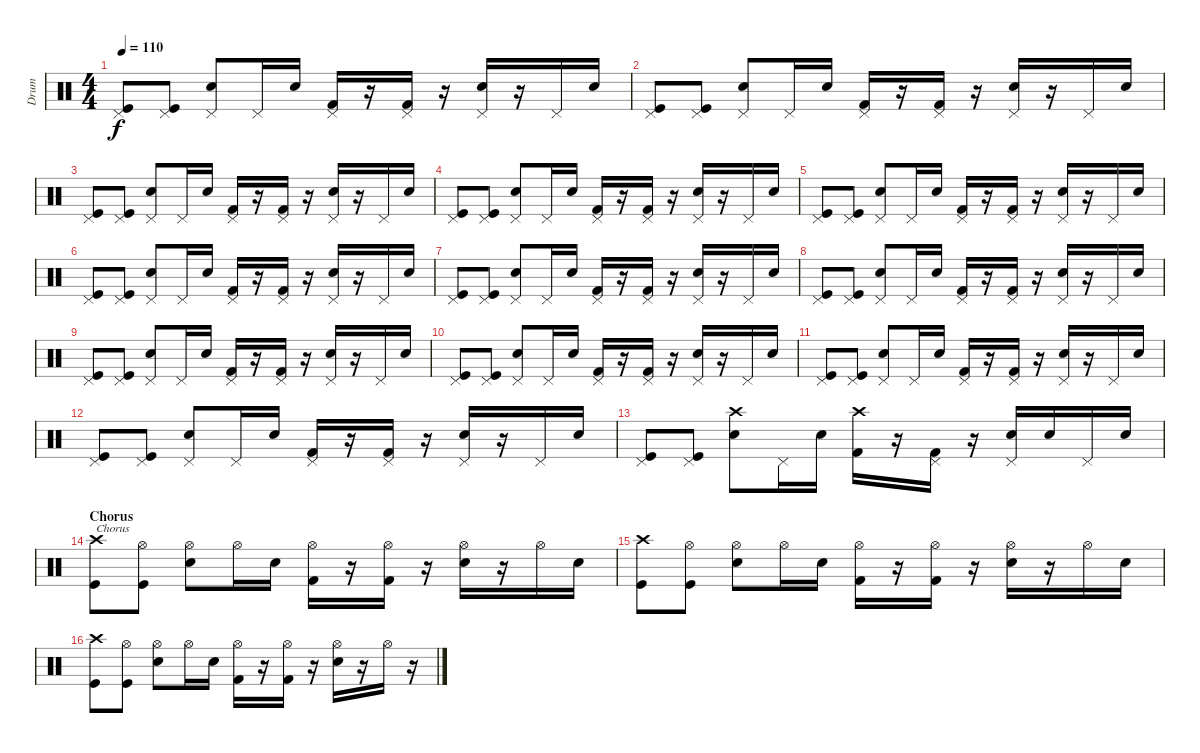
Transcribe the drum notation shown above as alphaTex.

\track ("Drum" "Drum") {instrument percussion}
\staff {score}
\articulation defaults
\ts (4 4)
\tempo 110
\clef neutral
\ks c
("Pedal Hi-Hat (hit)" "Kick (hit)").8{dy f} ("Pedal Hi-Hat (hit)" "Kick (hit)").8 ("Pedal Hi-Hat (hit)" "Electric Snare (hit)").8 "Pedal Hi-Hat (hit)".16 "Electric Snare (hit)".16 ("Pedal Hi-Hat (hit)" "Kick (hit) 2").16 r.16 ("Pedal Hi-Hat (hit)" "Kick (hit) 2").16 r.16 ("Pedal Hi-Hat (hit)" "Electric Snare (hit)").16 r.16 "Pedal Hi-Hat (hit)".16 "Electric Snare (hit)".16 |
("Pedal Hi-Hat (hit)" "Kick (hit)").8 ("Pedal Hi-Hat (hit)" "Kick (hit)").8 ("Pedal Hi-Hat (hit)" "Electric Snare (hit)").8 "Pedal Hi-Hat (hit)".16 "Electric Snare (hit)".16 ("Pedal Hi-Hat (hit)" "Kick (hit) 2").16 r.16 ("Pedal Hi-Hat (hit)" "Kick (hit) 2").16 r.16 ("Pedal Hi-Hat (hit)" "Electric Snare (hit)").16 r.16 "Pedal Hi-Hat (hit)".16 "Electric Snare (hit)".16 |
("Pedal Hi-Hat (hit)" "Kick (hit)").8 ("Pedal Hi-Hat (hit)" "Kick (hit)").8 ("Pedal Hi-Hat (hit)" "Electric Snare (hit)").8 "Pedal Hi-Hat (hit)".16 "Electric Snare (hit)".16 ("Pedal Hi-Hat (hit)" "Kick (hit) 2").16 r.16 ("Pedal Hi-Hat (hit)" "Kick (hit) 2").16 r.16 ("Pedal Hi-Hat (hit)" "Electric Snare (hit)").16 r.16 "Pedal Hi-Hat (hit)".16 "Electric Snare (hit)".16 |
("Pedal Hi-Hat (hit)" "Kick (hit)").8 ("Pedal Hi-Hat (hit)" "Kick (hit)").8 ("Pedal Hi-Hat (hit)" "Electric Snare (hit)").8 "Pedal Hi-Hat (hit)".16 "Electric Snare (hit)".16 ("Pedal Hi-Hat (hit)" "Kick (hit) 2").16 r.16 ("Pedal Hi-Hat (hit)" "Kick (hit) 2").16 r.16 ("Pedal Hi-Hat (hit)" "Electric Snare (hit)").16 r.16 "Pedal Hi-Hat (hit)".16 "Electric Snare (hit)".16 |
("Pedal Hi-Hat (hit)" "Kick (hit)").8 ("Pedal Hi-Hat (hit)" "Kick (hit)").8 ("Pedal Hi-Hat (hit)" "Electric Snare (hit)").8 "Pedal Hi-Hat (hit)".16 "Electric Snare (hit)".16 ("Pedal Hi-Hat (hit)" "Kick (hit) 2").16 r.16 ("Pedal Hi-Hat (hit)" "Kick (hit) 2").16 r.16 ("Pedal Hi-Hat (hit)" "Electric Snare (hit)").16 r.16 "Pedal Hi-Hat (hit)".16 "Electric Snare (hit)".16 |
("Pedal Hi-Hat (hit)" "Kick (hit)").8 ("Pedal Hi-Hat (hit)" "Kick (hit)").8 ("Pedal Hi-Hat (hit)" "Electric Snare (hit)").8 "Pedal Hi-Hat (hit)".16 "Electric Snare (hit)".16 ("Pedal Hi-Hat (hit)" "Kick (hit) 2").16 r.16 ("Pedal Hi-Hat (hit)" "Kick (hit) 2").16 r.16 ("Pedal Hi-Hat (hit)" "Electric Snare (hit)").16 r.16 "Pedal Hi-Hat (hit)".16 "Electric Snare (hit)".16 |
("Pedal Hi-Hat (hit)" "Kick (hit)").8 ("Pedal Hi-Hat (hit)" "Kick (hit)").8 ("Pedal Hi-Hat (hit)" "Electric Snare (hit)").8 "Pedal Hi-Hat (hit)".16 "Electric Snare (hit)".16 ("Pedal Hi-Hat (hit)" "Kick (hit) 2").16 r.16 ("Pedal Hi-Hat (hit)" "Kick (hit) 2").16 r.16 ("Pedal Hi-Hat (hit)" "Electric Snare (hit)").16 r.16 "Pedal Hi-Hat (hit)".16 "Electric Snare (hit)".16 |
("Pedal Hi-Hat (hit)" "Kick (hit)").8 ("Pedal Hi-Hat (hit)" "Kick (hit)").8 ("Pedal Hi-Hat (hit)" "Electric Snare (hit)").8 "Pedal Hi-Hat (hit)".16 "Electric Snare (hit)".16 ("Pedal Hi-Hat (hit)" "Kick (hit) 2").16 r.16 ("Pedal Hi-Hat (hit)" "Kick (hit) 2").16 r.16 ("Pedal Hi-Hat (hit)" "Electric Snare (hit)").16 r.16 "Pedal Hi-Hat (hit)".16 "Electric Snare (hit)".16 |
("Pedal Hi-Hat (hit)" "Kick (hit)").8 ("Pedal Hi-Hat (hit)" "Kick (hit)").8 ("Pedal Hi-Hat (hit)" "Electric Snare (hit)").8 "Pedal Hi-Hat (hit)".16 "Electric Snare (hit)".16 ("Pedal Hi-Hat (hit)" "Kick (hit) 2").16 r.16 ("Pedal Hi-Hat (hit)" "Kick (hit) 2").16 r.16 ("Pedal Hi-Hat (hit)" "Electric Snare (hit)").16 r.16 "Pedal Hi-Hat (hit)".16 "Electric Snare (hit)".16 |
("Pedal Hi-Hat (hit)" "Kick (hit)").8 ("Pedal Hi-Hat (hit)" "Kick (hit)").8 ("Pedal Hi-Hat (hit)" "Electric Snare (hit)").8 "Pedal Hi-Hat (hit)".16 "Electric Snare (hit)".16 ("Pedal Hi-Hat (hit)" "Kick (hit) 2").16 r.16 ("Pedal Hi-Hat (hit)" "Kick (hit) 2").16 r.16 ("Pedal Hi-Hat (hit)" "Electric Snare (hit)").16 r.16 "Pedal Hi-Hat (hit)".16 "Electric Snare (hit)".16 |
("Pedal Hi-Hat (hit)" "Kick (hit)").8 ("Pedal Hi-Hat (hit)" "Kick (hit)").8 ("Pedal Hi-Hat (hit)" "Electric Snare (hit)").8 "Pedal Hi-Hat (hit)".16 "Electric Snare (hit)".16 ("Pedal Hi-Hat (hit)" "Kick (hit) 2").16 r.16 ("Pedal Hi-Hat (hit)" "Kick (hit) 2").16 r.16 ("Pedal Hi-Hat (hit)" "Electric Snare (hit)").16 r.16 "Pedal Hi-Hat (hit)".16 "Electric Snare (hit)".16 |
("Pedal Hi-Hat (hit)" "Kick (hit)").8 ("Pedal Hi-Hat (hit)" "Kick (hit)").8 ("Pedal Hi-Hat (hit)" "Electric Snare (hit)").8 "Pedal Hi-Hat (hit)".16 "Electric Snare (hit)".16 ("Pedal Hi-Hat (hit)" "Kick (hit) 2").16 r.16 ("Pedal Hi-Hat (hit)" "Kick (hit) 2").16 r.16 ("Pedal Hi-Hat (hit)" "Electric Snare (hit)").16 r.16 "Pedal Hi-Hat (hit)".16 "Electric Snare (hit)".16 |
("Pedal Hi-Hat (hit)" "Kick (hit)").8 ("Pedal Hi-Hat (hit)" "Kick (hit)").8 ("Crash high (hit)" "Electric Snare (hit)").8 "Pedal Hi-Hat (hit)".16 "Electric Snare (hit)".16 ("Crash high (hit)" "Kick (hit) 2").16 r.16 ("Pedal Hi-Hat (hit)" "Kick (hit) 2").16 r.16 ("Pedal Hi-Hat (hit)" "Electric Snare (hit)").16 "Electric Snare (hit)".16 "Pedal Hi-Hat (hit)".16 "Electric Snare (hit)".16 |
\section ("" "Chorus")
("Crash high (hit)" "Kick (hit)").8{txt "Chorus"} ("Hi-Hat (open)" "Kick (hit)").8 ("Hi-Hat (open)" "Electric Snare (hit)").8 "Hi-Hat (open)".16 "Electric Snare (hit)".16 ("Hi-Hat (open)" "Kick (hit) 2").16 r.16 ("Hi-Hat (open)" "Kick (hit) 2").16 r.16 ("Hi-Hat (open)" "Electric Snare (hit)").16 r.16 "Hi-Hat (open)".16 "Electric Snare (hit)".16 |
("Crash high (hit)" "Kick (hit)").8 ("Hi-Hat (open)" "Kick (hit)").8 ("Hi-Hat (open)" "Electric Snare (hit)").8 "Hi-Hat (open)".16 "Electric Snare (hit)".16 ("Hi-Hat (open)" "Kick (hit) 2").16 r.16 ("Hi-Hat (open)" "Kick (hit) 2").16 r.16 ("Hi-Hat (open)" "Electric Snare (hit)").16 r.16 "Hi-Hat (open)".16 "Electric Snare (hit)".16 |
("Crash high (hit)" "Kick (hit)").8 ("Hi-Hat (open)" "Kick (hit)").8 ("Hi-Hat (open)" "Electric Snare (hit)").8 "Hi-Hat (open)".16 "Electric Snare (hit)".16 ("Hi-Hat (open)" "Kick (hit) 2").16 r.16 ("Hi-Hat (open)" "Kick (hit) 2").16 r.16 ("Hi-Hat (open)" "Electric Snare (hit)").16 r.16 "Hi-Hat (open)".16 r.16
